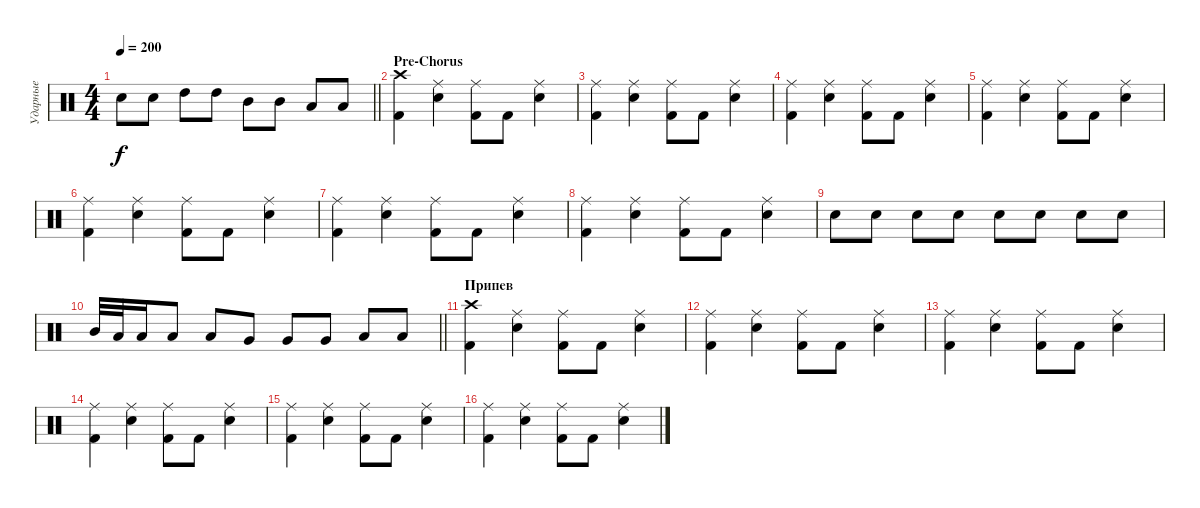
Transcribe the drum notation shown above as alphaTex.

\track ("Ударные" "Ударные") {instrument percussion}
\staff {score}
\articulation defaults
\ts (4 4)
\tempo 200
\clef neutral
\barLineRight lightlight
\ks c "Electric Snare (hit)".8{dy f} "Electric Snare (hit)".8 "High Tom (hit)".8 "High Tom (hit)".8 "Mid Tom (hit)".8 "Mid Tom (hit)".8 "Low Tom (hit)".8 "Low Tom (hit)".8
|
\section ("" "Pre-Chorus")
("Crash high (hit)" "Kick (hit) 2").4 ("Ride (middle)" "Electric Snare (hit)").4 ("Ride (middle)" "Kick (hit) 2").8 "Kick (hit) 2".8 ("Ride (middle)" "Electric Snare (hit)").4 |
("Ride (middle)" "Kick (hit) 2").4 ("Ride (middle)" "Electric Snare (hit)").4 ("Ride (middle)" "Kick (hit) 2").8 "Kick (hit) 2".8 ("Ride (middle)" "Electric Snare (hit)").4 |
("Ride (middle)" "Kick (hit) 2").4 ("Ride (middle)" "Electric Snare (hit)").4 ("Ride (middle)" "Kick (hit) 2").8 "Kick (hit) 2".8 ("Ride (middle)" "Electric Snare (hit)").4 |
("Ride (middle)" "Kick (hit) 2").4 ("Ride (middle)" "Electric Snare (hit)").4 ("Ride (middle)" "Kick (hit) 2").8 "Kick (hit) 2".8 ("Ride (middle)" "Electric Snare (hit)").4 |
("Ride (middle)" "Kick (hit) 2").4 ("Ride (middle)" "Electric Snare (hit)").4 ("Ride (middle)" "Kick (hit) 2").8 "Kick (hit) 2".8 ("Ride (middle)" "Electric Snare (hit)").4 |
("Ride (middle)" "Kick (hit) 2").4 ("Ride (middle)" "Electric Snare (hit)").4 ("Ride (middle)" "Kick (hit) 2").8 "Kick (hit) 2".8 ("Ride (middle)" "Electric Snare (hit)").4 |
("Ride (middle)" "Kick (hit) 2").4 ("Ride (middle)" "Electric Snare (hit)").4 ("Ride (middle)" "Kick (hit) 2").8 "Kick (hit) 2".8 ("Ride (middle)" "Electric Snare (hit)").4 |
"Electric Snare (hit)".8 "Electric Snare (hit)".8 "Electric Snare (hit)".8 "Electric Snare (hit)".8 "Electric Snare (hit)".8 "Electric Snare (hit)".8 "Electric Snare (hit)".8 "Electric Snare (hit)".8 |
\barLineRight lightlight "Mid Tom (hit)".32 "Low Tom (hit)".32 "Low Tom (hit)".16 "Low Tom (hit)".8 "Low Tom (hit)".8 "Very Low Tom (hit)".8 "Very Low Tom (hit)".8 "Very Low Tom (hit)".8 "Low Floor Tom (hit)".8 "Low Floor Tom (hit)".8
|
\section ("" "Припев")
("Crash high (hit)" "Kick (hit) 2").4 ("Ride (middle)" "Electric Snare (hit)").4 ("Ride (middle)" "Kick (hit) 2").8 "Kick (hit) 2".8 ("Ride (middle)" "Electric Snare (hit)").4 |
("Ride (middle)" "Kick (hit) 2").4 ("Ride (middle)" "Electric Snare (hit)").4 ("Ride (middle)" "Kick (hit) 2").8 "Kick (hit) 2".8 ("Ride (middle)" "Electric Snare (hit)").4 |
("Ride (middle)" "Kick (hit) 2").4 ("Ride (middle)" "Electric Snare (hit)").4 ("Ride (middle)" "Kick (hit) 2").8 "Kick (hit) 2".8 ("Ride (middle)" "Electric Snare (hit)").4 |
("Ride (middle)" "Kick (hit) 2").4 ("Ride (middle)" "Electric Snare (hit)").4 ("Ride (middle)" "Kick (hit) 2").8 "Kick (hit) 2".8 ("Ride (middle)" "Electric Snare (hit)").4 |
("Ride (middle)" "Kick (hit) 2").4 ("Ride (middle)" "Electric Snare (hit)").4 ("Ride (middle)" "Kick (hit) 2").8 "Kick (hit) 2".8 ("Ride (middle)" "Electric Snare (hit)").4 |
("Ride (middle)" "Kick (hit) 2").4 ("Ride (middle)" "Electric Snare (hit)").4 ("Ride (middle)" "Kick (hit) 2").8 "Kick (hit) 2".8 ("Ride (middle)" "Electric Snare (hit)").4
